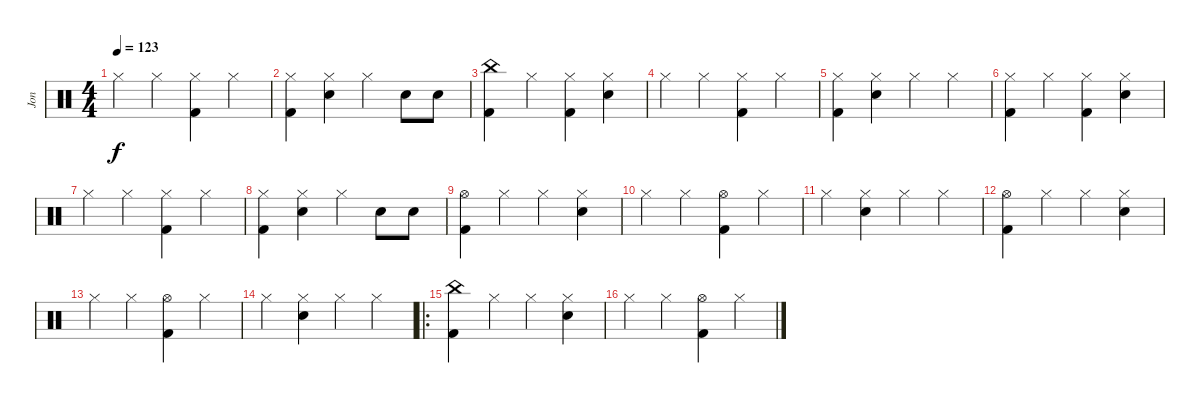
\track ("Jon" "Jon") {instrument percussion}
\staff {score}
\articulation defaults
\ts (4 4)
\tempo 123
\clef neutral
\ks c "Hi-Hat (closed)".4{dy f} "Hi-Hat (closed)".4
("Hi-Hat (closed)" "Kick (hit) 2").4 "Hi-Hat (closed)".4 |
("Hi-Hat (closed)" "Kick (hit) 2").4 ("Hi-Hat (closed)" "Snare (hit) 2").4 "Hi-Hat (closed)".4 "Snare (hit) 2".8 "Snare (hit) 2".8 |
("China (hit)" "Kick (hit) 2").4 "Hi-Hat (closed)".4 ("Hi-Hat (closed)" "Kick (hit) 2").4 ("Hi-Hat (closed)" "Snare (hit) 2").4 |
"Hi-Hat (closed)".4 "Hi-Hat (closed)".4 ("Hi-Hat (closed)" "Kick (hit) 2").4 "Hi-Hat (closed)".4 |
("Hi-Hat (closed)" "Kick (hit) 2").4 ("Hi-Hat (closed)" "Snare (hit) 2").4 "Hi-Hat (closed)".4 "Hi-Hat (closed)".4 |
("Hi-Hat (closed)" "Kick (hit) 2").4 "Hi-Hat (closed)".4 ("Hi-Hat (closed)" "Kick (hit) 2").4 ("Hi-Hat (closed)" "Snare (hit) 2").4 |
"Hi-Hat (closed)".4 "Hi-Hat (closed)".4 ("Hi-Hat (closed)" "Kick (hit) 2").4 "Hi-Hat (closed)".4 |
("Hi-Hat (closed)" "Kick (hit) 2").4 ("Hi-Hat (closed)" "Snare (hit) 2").4 "Hi-Hat (closed)".4 "Snare (hit) 2".8 "Snare (hit) 2".8 |
("Hi-Hat (open)" "Kick (hit) 2").4 "Hi-Hat (closed)".4 "Hi-Hat (closed)".4 ("Hi-Hat (closed)" "Snare (hit) 2").4 |
"Hi-Hat (closed)".4 "Hi-Hat (closed)".4 ("Hi-Hat (open)" "Kick (hit) 2").4 "Hi-Hat (closed)".4 |
"Hi-Hat (closed)".4 ("Hi-Hat (closed)" "Snare (hit) 2").4 "Hi-Hat (closed)".4 "Hi-Hat (closed)".4 |
("Hi-Hat (open)" "Kick (hit) 2").4 "Hi-Hat (closed)".4 "Hi-Hat (closed)".4 ("Hi-Hat (closed)" "Snare (hit) 2").4 |
"Hi-Hat (closed)".4 "Hi-Hat (closed)".4 ("Hi-Hat (open)" "Kick (hit) 2").4 "Hi-Hat (closed)".4 |
"Hi-Hat (closed)".4 ("Hi-Hat (closed)" "Snare (hit) 2").4 "Hi-Hat (closed)".4 "Hi-Hat (closed)".4 |
\ro
("China (hit)" "Kick (hit) 2").4 "Hi-Hat (closed)".4 "Hi-Hat (closed)".4 ("Hi-Hat (closed)" "Snare (hit) 2").4 |
"Hi-Hat (closed)".4 "Hi-Hat (closed)".4 ("Hi-Hat (open)" "Kick (hit) 2").4 "Hi-Hat (closed)".4
